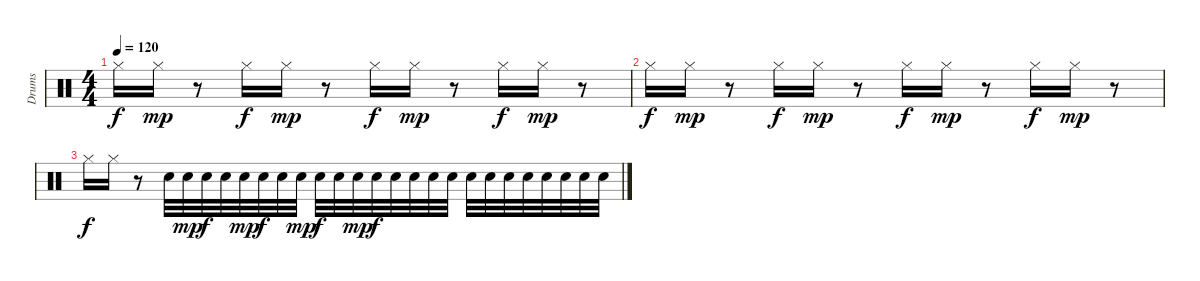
\track ("Drums" "Drums") {instrument percussion}
\staff {score}
\articulation defaults
\ts (4 4)
\tempo 120
\clef neutral
\ks c "Hi-Hat (closed)".16{dy f} "Hi-Hat (closed)".16{dy mp}
r.8 "Hi-Hat (closed)".16{dy f} "Hi-Hat (closed)".16{dy mp} r.8 "Hi-Hat (closed)".16{dy f} "Hi-Hat (closed)".16{dy mp} r.8 "Hi-Hat (closed)".16{dy f} "Hi-Hat (closed)".16{dy mp} r.8 |
"Hi-Hat (closed)".16{dy f} "Hi-Hat (closed)".16{dy mp} r.8 "Hi-Hat (closed)".16{dy f} "Hi-Hat (closed)".16{dy mp} r.8 "Hi-Hat (closed)".16{dy f} "Hi-Hat (closed)".16{dy mp} r.8 "Hi-Hat (closed)".16{dy f} "Hi-Hat (closed)".16{dy mp} r.8 |
"Hi-Hat (closed)".16{dy f} "Hi-Hat (closed)".16 r.8 "Electric Snare (hit)".32 "Electric Snare (hit)".32{dy mp} "Electric Snare (hit)".32{dy f} "Electric Snare (hit)".32 "Electric Snare (hit)".32{dy mp} "Electric Snare (hit)".32{dy f} "Electric Snare (hit)".32 "Electric Snare (hit)".32{dy mp} "Electric Snare (hit)".32{dy f} "Electric Snare (hit)".32 "Electric Snare (hit)".32{dy mp} "Electric Snare (hit)".32{dy f} "Electric Snare (hit)".32 "Electric Snare (hit)".32 "Electric Snare (hit)".32 "Electric Snare (hit)".32 "Electric Snare (hit)".32 "Electric Snare (hit)".32 "Electric Snare (hit)".32 "Electric Snare (hit)".32 "Electric Snare (hit)".32 "Electric Snare (hit)".32 "Electric Snare (hit)".32 "Electric Snare (hit)".32
